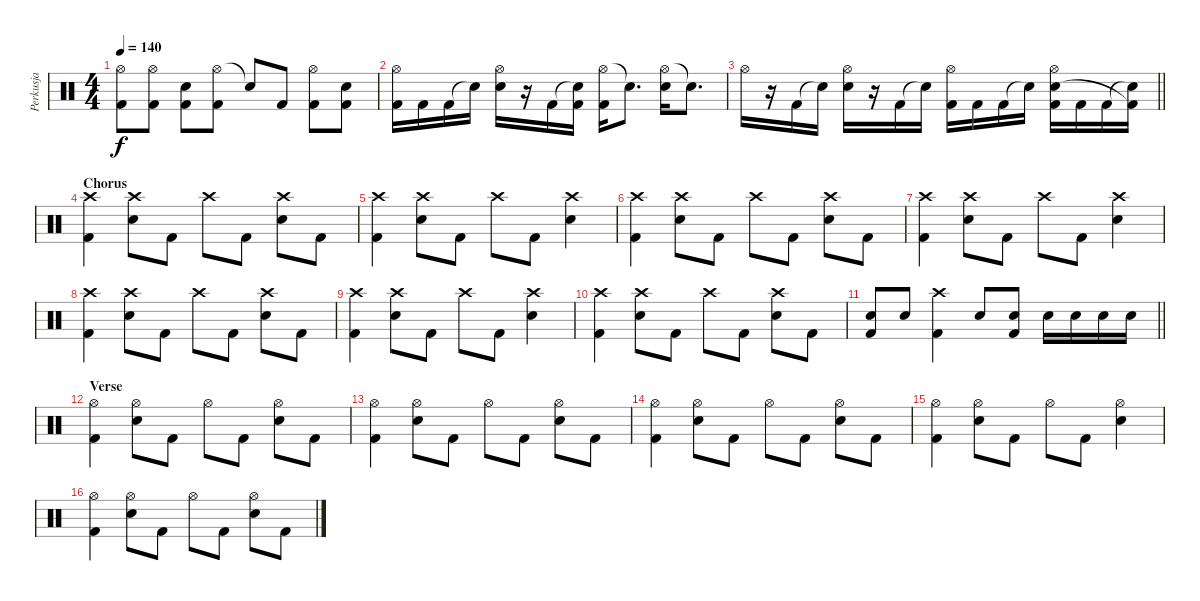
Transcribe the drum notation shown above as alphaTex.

\track ("Perkusja" "Perkusja") {instrument percussion}
\staff {score}
\articulation defaults
\ts (4 4)
\tempo 140
\clef neutral
\ks c
("Hi-Hat (open)" "Kick (hit) 2").8{dy f} ("Hi-Hat (open)" "Kick (hit) 2").8 ("Snare (hit) 2" "Kick (hit) 2").8 ("Hi-Hat (open)" "Kick (hit) 2").8 "Snare (hit)"{t}.8 "Kick (hit) 2".8 ("Hi-Hat (open)" "Kick (hit) 2").8 ("Snare (hit) 2" "Kick (hit) 2").8 |
("Hi-Hat (open)" "Kick (hit) 2").16 "Kick (hit) 2".16 "Kick (hit) 2".16 "Snare (hit)"{t}.16 ("Hi-Hat (open)" "Snare (hit) 2").16 r.16 "Kick (hit) 2".16 ("Snare (hit)"{t} "Kick (hit) 2").16 ("Hi-Hat (open)" "Kick (hit) 2").16 "Snare (hit)"{t}.8{d} ("Hi-Hat (open)" "Snare (hit) 2").16 "Snare (hit)"{t}.8{d} |
\barLineRight lightlight "Hi-Hat (open)".16
r.16 "Kick (hit) 2".16 "Snare (hit)"{t}.16 ("Hi-Hat (open)" "Snare (hit) 2").16 r.16 "Kick (hit) 2".16 "Snare (hit)"{t}.16 ("Hi-Hat (open)" "Kick (hit) 2").16 "Kick (hit) 2".16 "Kick (hit) 2".16 "Snare (hit)"{t}.16 ("Hi-Hat (open)" "Snare (hit) 2" "Kick (hit) 2").16 "Kick (hit) 2".16 "Kick (hit) 2".16 ("Snare (hit)"{t} "Kick (hit) 2"{t}).16 |
\section ("" "Chorus")
("Crash high (hit)" "Kick (hit) 2").4 ("Crash high (hit)" "Snare (hit) 2").8 "Kick (hit) 2".8 "Crash high (hit)".8 "Kick (hit) 2".8 ("Crash high (hit)" "Snare (hit) 2").8 "Kick (hit) 2".8 |
("Crash high (hit)" "Kick (hit) 2").4 ("Crash high (hit)" "Snare (hit) 2").8 "Kick (hit) 2".8 "Crash high (hit)".8 "Kick (hit) 2".8 ("Crash high (hit)" "Snare (hit) 2").4 |
("Crash high (hit)" "Kick (hit) 2").4 ("Crash high (hit)" "Snare (hit) 2").8 "Kick (hit) 2".8 "Crash high (hit)".8 "Kick (hit) 2".8 ("Crash high (hit)" "Snare (hit) 2").8 "Kick (hit) 2".8 |
("Crash high (hit)" "Kick (hit) 2").4 ("Crash high (hit)" "Snare (hit) 2").8 "Kick (hit) 2".8 "Crash high (hit)".8 "Kick (hit) 2".8 ("Crash high (hit)" "Snare (hit) 2").4 |
("Crash high (hit)" "Kick (hit) 2").4 ("Crash high (hit)" "Snare (hit) 2").8 "Kick (hit) 2".8 "Crash high (hit)".8 "Kick (hit) 2".8 ("Crash high (hit)" "Snare (hit) 2").8 "Kick (hit) 2".8 |
("Crash high (hit)" "Kick (hit) 2").4 ("Crash high (hit)" "Snare (hit) 2").8 "Kick (hit) 2".8 "Crash high (hit)".8 "Kick (hit) 2".8 ("Crash high (hit)" "Snare (hit) 2").4 |
("Crash high (hit)" "Kick (hit) 2").4 ("Crash high (hit)" "Snare (hit) 2").8 "Kick (hit) 2".8 "Crash high (hit)".8 "Kick (hit) 2".8 ("Crash high (hit)" "Snare (hit) 2").8 "Kick (hit) 2".8 |
\barLineRight lightlight
("Snare (hit) 2" "Kick (hit) 2").8 "Snare (hit) 2".8 ("Crash high (hit)" "Kick (hit) 2").4 "Snare (hit) 2".8 ("Snare (hit) 2" "Kick (hit) 2").8 "Snare (hit) 2".16 "Snare (hit) 2".16 "Snare (hit) 2".16 "Snare (hit) 2".16 |
\section ("" "Verse")
("Hi-Hat (open)" "Kick (hit) 2").4 ("Hi-Hat (open)" "Snare (hit) 2").8 "Kick (hit) 2".8 "Hi-Hat (open)".8 "Kick (hit) 2".8 ("Hi-Hat (open)" "Snare (hit) 2").8 "Kick (hit) 2".8 |
("Hi-Hat (open)" "Kick (hit) 2").4 ("Hi-Hat (open)" "Snare (hit) 2").8 "Kick (hit) 2".8 "Hi-Hat (open)".8 "Kick (hit) 2".8 ("Hi-Hat (open)" "Snare (hit) 2").8 "Kick (hit) 2".8 |
("Hi-Hat (open)" "Kick (hit) 2").4 ("Hi-Hat (open)" "Snare (hit) 2").8 "Kick (hit) 2".8 "Hi-Hat (open)".8 "Kick (hit) 2".8 ("Hi-Hat (open)" "Snare (hit) 2").8 "Kick (hit) 2".8 |
("Hi-Hat (open)" "Kick (hit) 2").4 ("Hi-Hat (open)" "Snare (hit) 2").8 "Kick (hit) 2".8 "Hi-Hat (open)".8 "Kick (hit) 2".8 ("Hi-Hat (open)" "Snare (hit) 2").4 |
("Hi-Hat (open)" "Kick (hit) 2").4 ("Hi-Hat (open)" "Snare (hit) 2").8 "Kick (hit) 2".8 "Hi-Hat (open)".8 "Kick (hit) 2".8 ("Hi-Hat (open)" "Snare (hit) 2").8 "Kick (hit) 2".8
